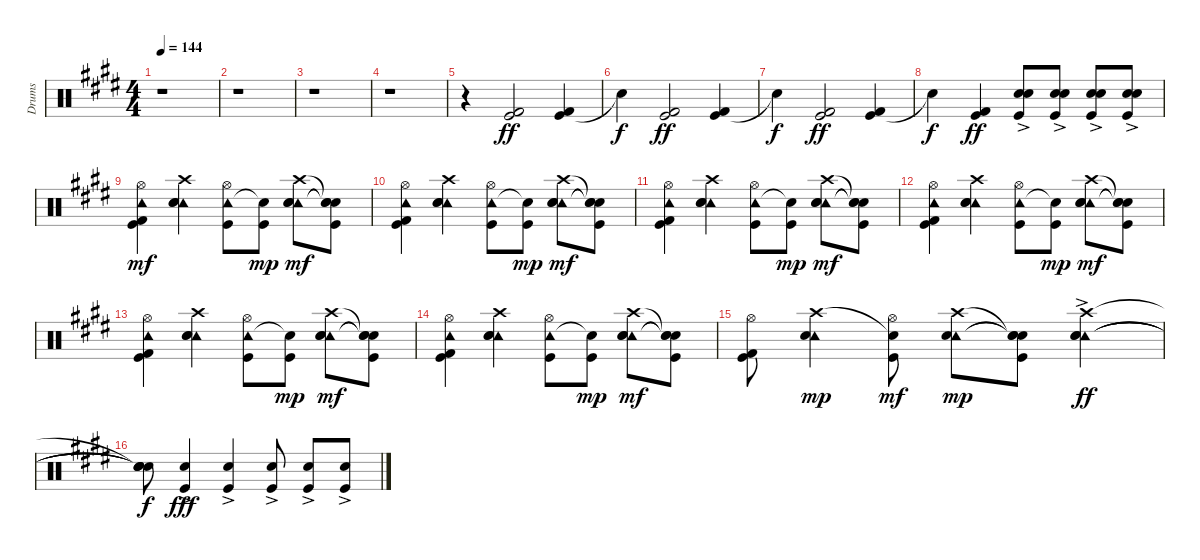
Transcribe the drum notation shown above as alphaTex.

\track ("Drums" "Drums") {instrument percussion}
\staff {score}
\articulation defaults
\ts (4 4)
\tempo 144
\clef neutral
\ks e
r.1{dy ff} |
\ks c#minor
r.1 |
r.1 |
r.1 |
\ks e
r.4 ("Kick (hit)" "Kick (hit) 2").2 ("Kick (hit)" "Kick (hit) 2").4 |
\ks c#minor "Snare (hit)"{t}.4{dy f}
("Kick (hit)" "Kick (hit) 2").2{dy ff} ("Kick (hit)" "Kick (hit) 2").4 |
"Snare (hit)"{t}.4{dy f} ("Kick (hit)" "Kick (hit) 2").2{dy ff} ("Kick (hit)" "Kick (hit) 2").4 |
"Snare (hit)"{t}.4{dy f} ("Kick (hit)" "Kick (hit) 2").4{dy ff} ("Snare (hit) 2"{ac} "Electric Snare (hit)"{ac} "Kick (hit)").8 ("Snare (hit) 2"{ac} "Electric Snare (hit)"{ac} "Kick (hit)").8 ("Snare (hit) 2"{ac} "Electric Snare (hit)"{ac} "Kick (hit)").8 ("Snare (hit) 2"{ac} "Electric Snare (hit)"{ac} "Kick (hit)").8 |
\ks e
("Tambourine (hit)" "Hi-Hat (open)" "Kick (hit) 2" "Kick (hit)").4{dy mf} ("Crash high (hit)" "Tambourine (hit)" "Snare (hit) 2" "Electric Snare (hit)").4 ("Tambourine (hit)" "Hi-Hat (open)" "Kick (hit)").8 ("Snare (hit)"{t} "Kick (hit)").8{dy mp} ("Crash high (hit)" "Tambourine (hit)" "Snare (hit) 2" "Electric Snare (hit)").8{dy mf} ("Snare (hit)"{t} "Snare (hit)"{t} "Snare (hit)"{t} "Kick (hit)").8 |
("Tambourine (hit)" "Hi-Hat (open)" "Kick (hit) 2" "Kick (hit)").4 ("Crash high (hit)" "Tambourine (hit)" "Snare (hit) 2" "Electric Snare (hit)").4 ("Tambourine (hit)" "Hi-Hat (open)" "Kick (hit)").8 ("Snare (hit)"{t} "Kick (hit)").8{dy mp} ("Crash high (hit)" "Tambourine (hit)" "Snare (hit) 2" "Electric Snare (hit)").8{dy mf} ("Snare (hit)"{t} "Snare (hit)"{t} "Snare (hit)"{t} "Kick (hit)").8 |
\ks c#minor
("Tambourine (hit)" "Hi-Hat (open)" "Kick (hit) 2" "Kick (hit)").4 ("Crash high (hit)" "Tambourine (hit)" "Snare (hit) 2" "Electric Snare (hit)").4 ("Tambourine (hit)" "Hi-Hat (open)" "Kick (hit)").8 ("Snare (hit)"{t} "Kick (hit)").8{dy mp} ("Crash high (hit)" "Tambourine (hit)" "Snare (hit) 2" "Electric Snare (hit)").8{dy mf} ("Snare (hit)"{t} "Snare (hit)"{t} "Snare (hit)"{t} "Kick (hit)").8 |
("Tambourine (hit)" "Hi-Hat (open)" "Kick (hit) 2" "Kick (hit)").4 ("Crash high (hit)" "Tambourine (hit)" "Snare (hit) 2" "Electric Snare (hit)").4 ("Tambourine (hit)" "Hi-Hat (open)" "Kick (hit)").8 ("Snare (hit)"{t} "Kick (hit)").8{dy mp} ("Crash high (hit)" "Tambourine (hit)" "Snare (hit) 2" "Electric Snare (hit)").8{dy mf} ("Snare (hit)"{t} "Snare (hit)"{t} "Snare (hit)"{t} "Kick (hit)").8 |
\ks e
("Tambourine (hit)" "Hi-Hat (open)" "Kick (hit) 2" "Kick (hit)").4 ("Crash high (hit)" "Tambourine (hit)" "Snare (hit) 2" "Electric Snare (hit)").4 ("Tambourine (hit)" "Hi-Hat (open)" "Kick (hit)").8 ("Snare (hit)"{t} "Kick (hit)").8{dy mp} ("Crash high (hit)" "Tambourine (hit)" "Snare (hit) 2" "Electric Snare (hit)").8{dy mf} ("Snare (hit)"{t} "Snare (hit)"{t} "Snare (hit)"{t} "Kick (hit)").8 |
\ks c#minor
("Tambourine (hit)" "Hi-Hat (open)" "Kick (hit) 2" "Kick (hit)").4 ("Crash high (hit)" "Tambourine (hit)" "Snare (hit) 2" "Electric Snare (hit)").4 ("Tambourine (hit)" "Hi-Hat (open)" "Kick (hit)").8 ("Snare (hit)"{t} "Kick (hit)").8{dy mp} ("Crash high (hit)" "Tambourine (hit)" "Snare (hit) 2" "Electric Snare (hit)").8{dy mf} ("Snare (hit)"{t} "Snare (hit)"{t} "Snare (hit)"{t} "Kick (hit)").8 |
("Hi-Hat (open)" "Kick (hit) 2" "Kick (hit)").8 ("Crash high (hit)" "Tambourine (hit)" "Snare (hit) 2").4{dy mp} ("Snare (hit)"{t} "Hi-Hat (open)" "Kick (hit)").8{dy mf} ("Crash high (hit)" "Tambourine (hit)" "Snare (hit) 2").8{dy mp} ("Snare (hit)"{t} "Snare (hit)"{t} "Snare (hit)"{t} "Kick (hit)").8 ("Crash high (hit)"{ac} "Tambourine (hit)" "Snare (hit) 2"{ac} "Electric Snare (hit)"{ac}).4{dy ff} |
("Snare (hit)"{t} "Snare (hit)"{t} "Snare (hit)"{t} "Snare (hit)"{t}).8{dy f} ("Snare (hit) 2"{ac} "Kick (hit)").4{dy fff} ("Snare (hit) 2"{ac} "Kick (hit)").4 ("Snare (hit) 2"{ac} "Kick (hit)").8 ("Snare (hit) 2"{ac} "Kick (hit)").8 ("Snare (hit) 2"{ac} "Kick (hit)").8
